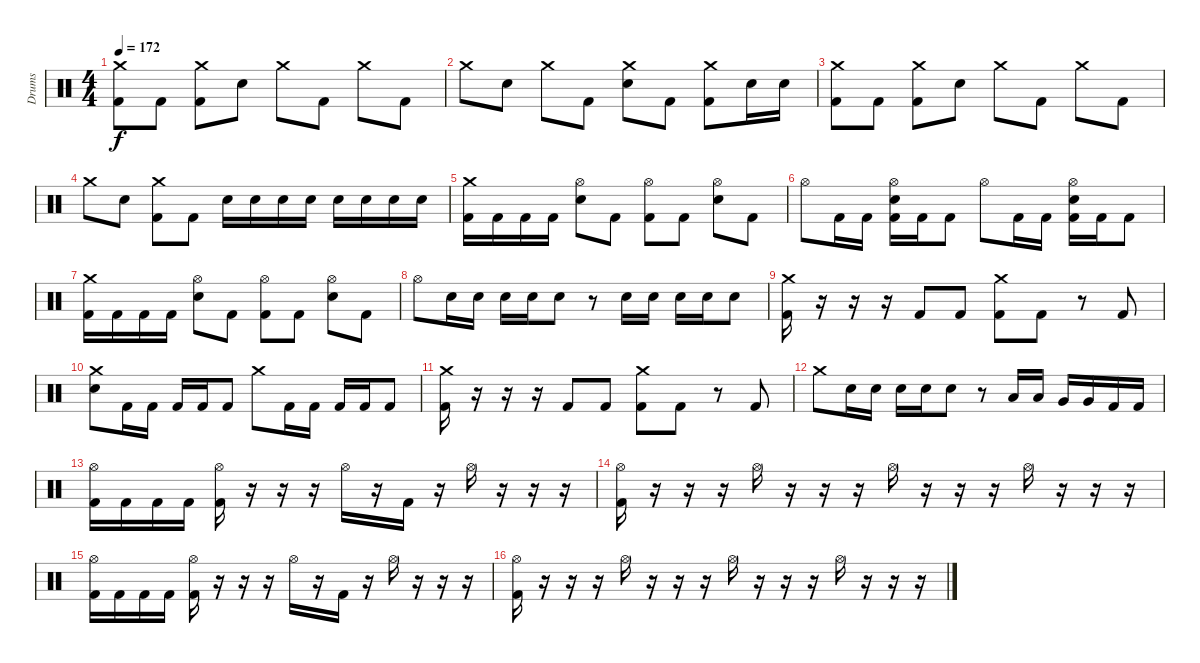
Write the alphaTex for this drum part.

\track ("Drums" "Drums") {instrument percussion}
\staff {score}
\articulation defaults
\ts (4 4)
\tempo 172
\clef neutral
\ks c
("Crash medium (hit)" "Kick (hit) 2").8{dy f} "Kick (hit) 2".8 ("Crash medium (hit)" "Kick (hit) 2").8 "Electric Snare (hit)".8 "Crash medium (hit)".8 "Kick (hit) 2".8 "Crash medium (hit)".8 "Kick (hit) 2".8 |
"Crash medium (hit)".8 "Electric Snare (hit)".8 "Crash medium (hit)".8 "Kick (hit) 2".8 ("Crash medium (hit)" "Electric Snare (hit)").8 "Kick (hit) 2".8 ("Crash medium (hit)" "Kick (hit) 2").8 "Electric Snare (hit)".16 "Electric Snare (hit)".16 |
("Crash medium (hit)" "Kick (hit) 2").8 "Kick (hit) 2".8 ("Crash medium (hit)" "Kick (hit) 2").8 "Electric Snare (hit)".8 "Crash medium (hit)".8 "Kick (hit) 2".8 "Crash medium (hit)".8 "Kick (hit) 2".8 |
"Crash medium (hit)".8 "Electric Snare (hit)".8 ("Crash medium (hit)" "Kick (hit) 2").8 "Kick (hit) 2".8 "Electric Snare (hit)".16 "Electric Snare (hit)".16 "Electric Snare (hit)".16 "Electric Snare (hit)".16 "Electric Snare (hit)".16 "Electric Snare (hit)".16 "Electric Snare (hit)".16 "Electric Snare (hit)".16 |
("Crash medium (hit)" "Kick (hit) 2").16 "Kick (hit) 2".16 "Kick (hit) 2".16 "Kick (hit) 2".16 ("Hi-Hat (open)" "Electric Snare (hit)").8 "Kick (hit) 2".8 ("Hi-Hat (open)" "Kick (hit) 2").8 "Kick (hit) 2".8 ("Hi-Hat (open)" "Electric Snare (hit)").8 "Kick (hit) 2".8 |
"Hi-Hat (open)".8 "Kick (hit) 2".16 "Kick (hit) 2".16 ("Hi-Hat (open)" "Electric Snare (hit)" "Kick (hit) 2").16 "Kick (hit) 2".16 "Kick (hit) 2".8 "Hi-Hat (open)".8 "Kick (hit) 2".16 "Kick (hit) 2".16 ("Hi-Hat (open)" "Electric Snare (hit)" "Kick (hit) 2").16 "Kick (hit) 2".16 "Kick (hit) 2".8 |
("Crash medium (hit)" "Kick (hit) 2").16 "Kick (hit) 2".16 "Kick (hit) 2".16 "Kick (hit) 2".16 ("Hi-Hat (open)" "Electric Snare (hit)").8 "Kick (hit) 2".8 ("Hi-Hat (open)" "Kick (hit) 2").8 "Kick (hit) 2".8 ("Hi-Hat (open)" "Electric Snare (hit)").8 "Kick (hit) 2".8 |
"Hi-Hat (open)".8 "Electric Snare (hit)".16 "Electric Snare (hit)".16 "Electric Snare (hit)".16 "Electric Snare (hit)".16 "Electric Snare (hit)".8 r.8 "Electric Snare (hit)".16 "Electric Snare (hit)".16 "Electric Snare (hit)".16 "Electric Snare (hit)".16 "Electric Snare (hit)".8 |
("Crash medium (hit)" "Kick (hit) 2").16 r.16 r.16 r.16 "Kick (hit) 2".8 "Kick (hit) 2".8 ("Crash medium (hit)" "Kick (hit) 2").8 "Kick (hit) 2".8 r.8 "Kick (hit) 2".8 |
("Crash medium (hit)" "Electric Snare (hit)").8 "Kick (hit) 2".16 "Kick (hit) 2".16 "Kick (hit) 2".16 "Kick (hit) 2".16 "Kick (hit) 2".8 "Crash medium (hit)".8 "Kick (hit) 2".16 "Kick (hit) 2".16 "Kick (hit) 2".16 "Kick (hit) 2".16 "Kick (hit) 2".8 |
("Crash medium (hit)" "Kick (hit) 2").16 r.16 r.16 r.16 "Kick (hit) 2".8 "Kick (hit) 2".8 ("Crash medium (hit)" "Kick (hit) 2").8 "Kick (hit) 2".8 r.8 "Kick (hit) 2".8 |
"Crash medium (hit)".8 "Electric Snare (hit)".16 "Electric Snare (hit)".16 "Electric Snare (hit)".16 "Electric Snare (hit)".16 "Electric Snare (hit)".8 r.8 "Low Tom (hit)".16 "Low Tom (hit)".16 "Very Low Tom (hit)".16 "Very Low Tom (hit)".16 "Kick (hit) 2".16 "Kick (hit) 2".16 |
("Hi-Hat (open)" "Kick (hit) 2").16 "Kick (hit) 2".16 "Kick (hit) 2".16 "Kick (hit) 2".16 ("Hi-Hat (open)" "Kick (hit) 2").16 r.16 r.16 r.16 "Hi-Hat (open)".16 r.16 "Kick (hit) 2".16 r.16 "Hi-Hat (open)".16 r.16 r.16 r.16 |
("Hi-Hat (open)" "Kick (hit) 2").16 r.16 r.16 r.16 "Hi-Hat (open)".16 r.16 r.16 r.16 "Hi-Hat (open)".16 r.16 r.16 r.16 "Hi-Hat (open)".16 r.16 r.16 r.16 |
("Hi-Hat (open)" "Kick (hit) 2").16 "Kick (hit) 2".16 "Kick (hit) 2".16 "Kick (hit) 2".16 ("Hi-Hat (open)" "Kick (hit) 2").16 r.16 r.16 r.16 "Hi-Hat (open)".16 r.16 "Kick (hit) 2".16 r.16 "Hi-Hat (open)".16 r.16 r.16 r.16 |
("Hi-Hat (open)" "Kick (hit) 2").16 r.16 r.16 r.16 "Hi-Hat (open)".16 r.16 r.16 r.16 "Hi-Hat (open)".16 r.16 r.16 r.16 "Hi-Hat (open)".16 r.16 r.16 r.16
